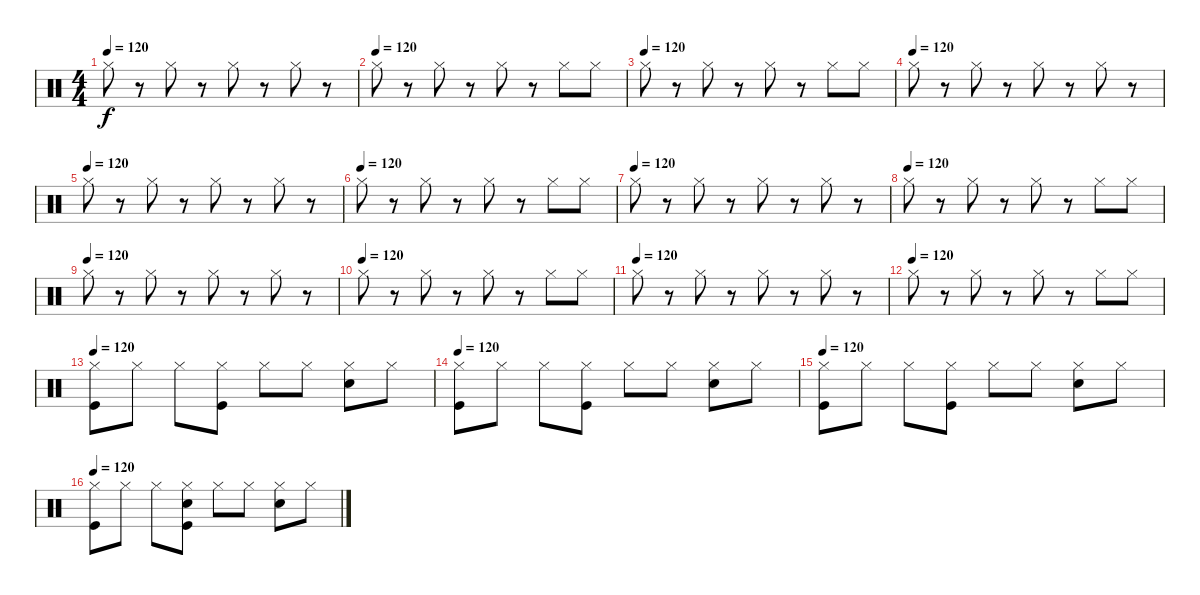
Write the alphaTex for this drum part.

\track "" {instrument percussion}
\staff {score}
\articulation defaults
\ts (4 4)
\tempo 120
\clef neutral
\ks c "Hi-Hat (closed)".8{dy f}
r.8 "Hi-Hat (closed)".8 r.8 "Hi-Hat (closed)".8 r.8 "Hi-Hat (closed)".8 r.8 |
\tempo (120)
"Hi-Hat (closed)".8 r.8 "Hi-Hat (closed)".8 r.8 "Hi-Hat (closed)".8 r.8 "Hi-Hat (closed)".8 "Hi-Hat (closed)".8 |
\tempo (120)
"Hi-Hat (closed)".8 r.8 "Hi-Hat (closed)".8 r.8 "Hi-Hat (closed)".8 r.8 "Hi-Hat (closed)".8 "Hi-Hat (closed)".8 |
\tempo (120)
"Hi-Hat (closed)".8 r.8 "Hi-Hat (closed)".8 r.8 "Hi-Hat (closed)".8 r.8 "Hi-Hat (closed)".8 r.8 |
\tempo (120)
"Hi-Hat (closed)".8 r.8 "Hi-Hat (closed)".8 r.8 "Hi-Hat (closed)".8 r.8 "Hi-Hat (closed)".8 r.8 |
\tempo (120)
"Hi-Hat (closed)".8 r.8 "Hi-Hat (closed)".8 r.8 "Hi-Hat (closed)".8 r.8 "Hi-Hat (closed)".8 "Hi-Hat (closed)".8 |
\tempo (120)
"Hi-Hat (closed)".8 r.8 "Hi-Hat (closed)".8 r.8 "Hi-Hat (closed)".8 r.8 "Hi-Hat (closed)".8 r.8 |
\tempo (120)
"Hi-Hat (closed)".8 r.8 "Hi-Hat (closed)".8 r.8 "Hi-Hat (closed)".8 r.8 "Hi-Hat (closed)".8 "Hi-Hat (closed)".8 |
\tempo (120)
"Hi-Hat (closed)".8 r.8 "Hi-Hat (closed)".8 r.8 "Hi-Hat (closed)".8 r.8 "Hi-Hat (closed)".8 r.8 |
\tempo (120)
"Hi-Hat (closed)".8 r.8 "Hi-Hat (closed)".8 r.8 "Hi-Hat (closed)".8 r.8 "Hi-Hat (closed)".8 "Hi-Hat (closed)".8 |
\tempo (120)
"Hi-Hat (closed)".8 r.8 "Hi-Hat (closed)".8 r.8 "Hi-Hat (closed)".8 r.8 "Hi-Hat (closed)".8 r.8 |
\tempo (120)
"Hi-Hat (closed)".8 r.8 "Hi-Hat (closed)".8 r.8 "Hi-Hat (closed)".8 r.8 "Hi-Hat (closed)".8 "Hi-Hat (closed)".8 |
\tempo 120
("Hi-Hat (closed)" "Kick (hit)").8 "Hi-Hat (closed)".8 "Hi-Hat (closed)".8 ("Kick (hit)" "Hi-Hat (closed)").8 "Hi-Hat (closed)".8 "Hi-Hat (closed)".8 ("Electric Snare (hit)" "Hi-Hat (closed)").8 "Hi-Hat (closed)".8 |
\tempo 120
("Hi-Hat (closed)" "Kick (hit)").8 "Hi-Hat (closed)".8 "Hi-Hat (closed)".8 ("Kick (hit)" "Hi-Hat (closed)").8 "Hi-Hat (closed)".8 "Hi-Hat (closed)".8 ("Electric Snare (hit)" "Hi-Hat (closed)").8 "Hi-Hat (closed)".8 |
\tempo 120
("Hi-Hat (closed)" "Kick (hit)").8 "Hi-Hat (closed)".8 "Hi-Hat (closed)".8 ("Kick (hit)" "Hi-Hat (closed)").8 "Hi-Hat (closed)".8 "Hi-Hat (closed)".8 ("Electric Snare (hit)" "Hi-Hat (closed)").8 "Hi-Hat (closed)".8 |
\tempo 120
("Hi-Hat (closed)" "Kick (hit)").8 "Hi-Hat (closed)".8 "Hi-Hat (closed)".8 ("Kick (hit)" "Electric Snare (hit)" "Hi-Hat (closed)").8 "Hi-Hat (closed)".8 "Hi-Hat (closed)".8 ("Electric Snare (hit)" "Hi-Hat (closed)").8 "Hi-Hat (closed)".8
